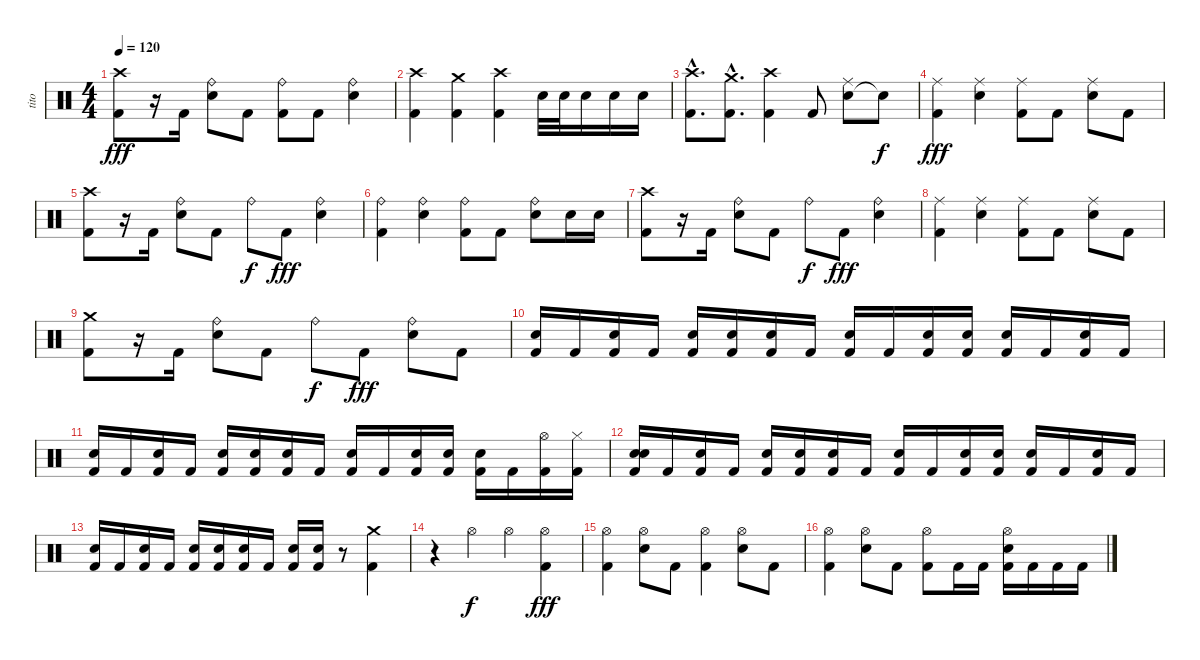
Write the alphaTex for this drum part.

\track ("tito" "tito") {instrument percussion}
\staff {score}
\articulation defaults
\ts (4 4)
\tempo 120
\clef neutral
\ks c
("Kick (hit) 2" "Crash high (hit)").8{dy fff} r.16 "Kick (hit) 2".16 ("Electric Snare (hit)" "Ride (bell)").8 "Kick (hit) 2".8 ("Kick (hit) 2" "Ride (bell)").8 "Kick (hit) 2".8 ("Electric Snare (hit)" "Ride (bell)").4 |
("Kick (hit) 2" "Crash high (hit)").4 ("Kick (hit) 2" "Crash medium (hit)").4 ("Kick (hit) 2" "Crash high (hit)").4 "Electric Snare (hit)".32 "Electric Snare (hit)".32 "Electric Snare (hit)".16 "Electric Snare (hit)".16 "Electric Snare (hit)".16 |
("Kick (hit) 2"{hac} "Crash high (hit)"{hac}).8{d} ("Kick (hit) 2"{hac} "Crash medium (hit)"{hac}).8{d} ("Kick (hit) 2" "Crash high (hit)").4 "Kick (hit) 2".8 ("Electric Snare (hit)" "Ride (middle)").8 "Snare (hit)"{t}.8{dy f} |
("Kick (hit) 2" "Ride (middle)").4{dy fff} ("Electric Snare (hit)" "Ride (middle)").4 ("Kick (hit) 2" "Ride (middle)").8 "Kick (hit) 2".8 ("Electric Snare (hit)" "Ride (middle)").8 "Kick (hit) 2".8 |
("Kick (hit) 2" "Crash high (hit)").8 r.16 "Kick (hit) 2".16 ("Electric Snare (hit)" "Ride (bell)").8 "Kick (hit) 2".8 "Ride (bell)".8{dy f} "Kick (hit) 2".8{dy fff} ("Electric Snare (hit)" "Ride (bell)").4 |
("Kick (hit) 2" "Ride (bell)").4 ("Electric Snare (hit)" "Ride (bell)").4 ("Kick (hit) 2" "Ride (bell)").8 "Kick (hit) 2".8 ("Electric Snare (hit)" "Ride (bell)").8 "Electric Snare (hit)".16 "Electric Snare (hit)".16 |
("Kick (hit) 2" "Crash high (hit)").8 r.16 "Kick (hit) 2".16 ("Electric Snare (hit)" "Ride (bell)").8 "Kick (hit) 2".8 "Ride (bell)".8{dy f} "Kick (hit) 2".8{dy fff} ("Electric Snare (hit)" "Ride (bell)").4 |
("Kick (hit) 2" "Ride (middle)").4 ("Electric Snare (hit)" "Ride (middle)").4 ("Kick (hit) 2" "Ride (middle)").8 "Kick (hit) 2".8 ("Electric Snare (hit)" "Ride (middle)").8 "Kick (hit) 2".8 |
("Kick (hit) 2" "Crash medium (hit)").8 r.16 "Kick (hit) 2".16 ("Electric Snare (hit)" "Ride (bell)").8 "Kick (hit) 2".8 "Ride (bell)".8{dy f} "Kick (hit) 2".8{dy fff} ("Electric Snare (hit)" "Ride (bell)").8 "Kick (hit) 2".8 |
("Kick (hit) 2" "Electric Snare (hit)").16 "Kick (hit) 2".16 ("Kick (hit) 2" "Electric Snare (hit)").16 "Kick (hit) 2".16 ("Kick (hit) 2" "Electric Snare (hit)").16 ("Kick (hit) 2" "Electric Snare (hit)").16 ("Kick (hit) 2" "Electric Snare (hit)").16 "Kick (hit) 2".16 ("Kick (hit) 2" "Electric Snare (hit)").16 "Kick (hit) 2".16 ("Kick (hit) 2" "Electric Snare (hit)").16 ("Kick (hit) 2" "Electric Snare (hit)").16 ("Kick (hit) 2" "Electric Snare (hit)").16 "Kick (hit) 2".16 ("Kick (hit) 2" "Electric Snare (hit)").16 "Kick (hit) 2".16 |
("Kick (hit) 2" "Electric Snare (hit)").16 "Kick (hit) 2".16 ("Kick (hit) 2" "Electric Snare (hit)").16 "Kick (hit) 2".16 ("Kick (hit) 2" "Electric Snare (hit)").16 ("Kick (hit) 2" "Electric Snare (hit)").16 ("Kick (hit) 2" "Electric Snare (hit)").16 "Kick (hit) 2".16 ("Kick (hit) 2" "Electric Snare (hit)").16 "Kick (hit) 2".16 ("Kick (hit) 2" "Electric Snare (hit)").16 ("Kick (hit) 2" "Electric Snare (hit)").16 ("Kick (hit) 2" "Electric Snare (hit)").16 "Kick (hit) 2".16 ("Kick (hit) 2" "Hi-Hat (open)").16 ("Kick (hit) 2" "Hi-Hat (closed)").16 |
("Kick (hit) 2" "Electric Snare (hit)" "Snare (hit)").16 "Kick (hit) 2".16 ("Kick (hit) 2" "Electric Snare (hit)").16 "Kick (hit) 2".16 ("Kick (hit) 2" "Electric Snare (hit)").16 ("Kick (hit) 2" "Electric Snare (hit)").16 ("Kick (hit) 2" "Electric Snare (hit)").16 "Kick (hit) 2".16 ("Kick (hit) 2" "Electric Snare (hit)").16 "Kick (hit) 2".16 ("Kick (hit) 2" "Electric Snare (hit)").16 ("Kick (hit) 2" "Electric Snare (hit)").16 ("Kick (hit) 2" "Electric Snare (hit)").16 "Kick (hit) 2".16 ("Kick (hit) 2" "Electric Snare (hit)").16 "Kick (hit) 2".16 |
("Kick (hit) 2" "Electric Snare (hit)").16 "Kick (hit) 2".16 ("Kick (hit) 2" "Electric Snare (hit)").16 "Kick (hit) 2".16 ("Kick (hit) 2" "Electric Snare (hit)").16 ("Kick (hit) 2" "Electric Snare (hit)").16 ("Kick (hit) 2" "Electric Snare (hit)").16 "Kick (hit) 2".16 ("Kick (hit) 2" "Electric Snare (hit)").16 ("Kick (hit) 2" "Electric Snare (hit)").16 r.8 ("Kick (hit) 2" "Crash medium (hit)").4 |
r.4 "Hi-Hat (open)".4{dy f} "Hi-Hat (open)".4 ("Kick (hit) 2" "Hi-Hat (open)").4{dy fff} |
("Kick (hit) 2" "Hi-Hat (open)").4 ("Electric Snare (hit)" "Hi-Hat (open)").8 "Kick (hit) 2".8 ("Kick (hit) 2" "Hi-Hat (open)").4 ("Electric Snare (hit)" "Hi-Hat (open)").8 "Kick (hit) 2".8 |
("Kick (hit) 2" "Hi-Hat (open)").4 ("Electric Snare (hit)" "Hi-Hat (open)").8 "Kick (hit) 2".8 ("Kick (hit) 2" "Hi-Hat (open)").8 "Kick (hit) 2".16 "Kick (hit) 2".16 ("Kick (hit) 2" "Electric Snare (hit)" "Hi-Hat (open)").16 "Kick (hit) 2".16 "Kick (hit) 2".16 "Kick (hit) 2".16
